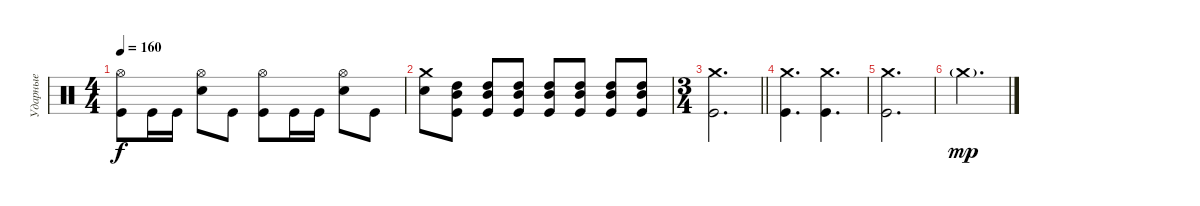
\track ("Ударные" "Ударные") {instrument percussion}
\staff {score}
\articulation defaults
\ts (4 4)
\tempo 160
\clef neutral
\ks c
("Kick (hit)" "Hi-Hat (open)").8{dy f} "Kick (hit)".16 "Kick (hit)".16 ("Snare (hit) 2" "Hi-Hat (open)").8 "Kick (hit)".8 ("Kick (hit)" "Hi-Hat (open)").8 "Kick (hit)".16 "Kick (hit)".16 ("Snare (hit) 2" "Hi-Hat (open)").8 "Kick (hit)".8 |
("Snare (hit) 2" "Crash medium (hit)").8 ("Kick (hit)" "Mid Tom (hit)" "High Tom (hit)").8{bd 60} ("Kick (hit)" "Mid Tom (hit)" "High Tom (hit)").8{bd 60} ("Kick (hit)" "Mid Tom (hit)" "High Tom (hit)").8{bd 60} ("Kick (hit)" "Mid Tom (hit)" "High Tom (hit)").8{bd 60} ("Kick (hit)" "Mid Tom (hit)" "High Tom (hit)").8{bd 60} ("Kick (hit)" "Mid Tom (hit)" "High Tom (hit)").8{bd 60} ("Kick (hit)" "Mid Tom (hit)" "High Tom (hit)").8{bd 60} |
\ts (3 4)
\barLineRight lightlight
("Kick (hit)" "Crash medium (hit)").2{d} |
("Kick (hit)" "Crash medium (hit)").4{d} ("Kick (hit)" "Crash medium (hit)").4{d} |
("Kick (hit)" "Crash medium (hit)").2{d} |
"Crash medium (hit)"{g}.2{d dy mp}
